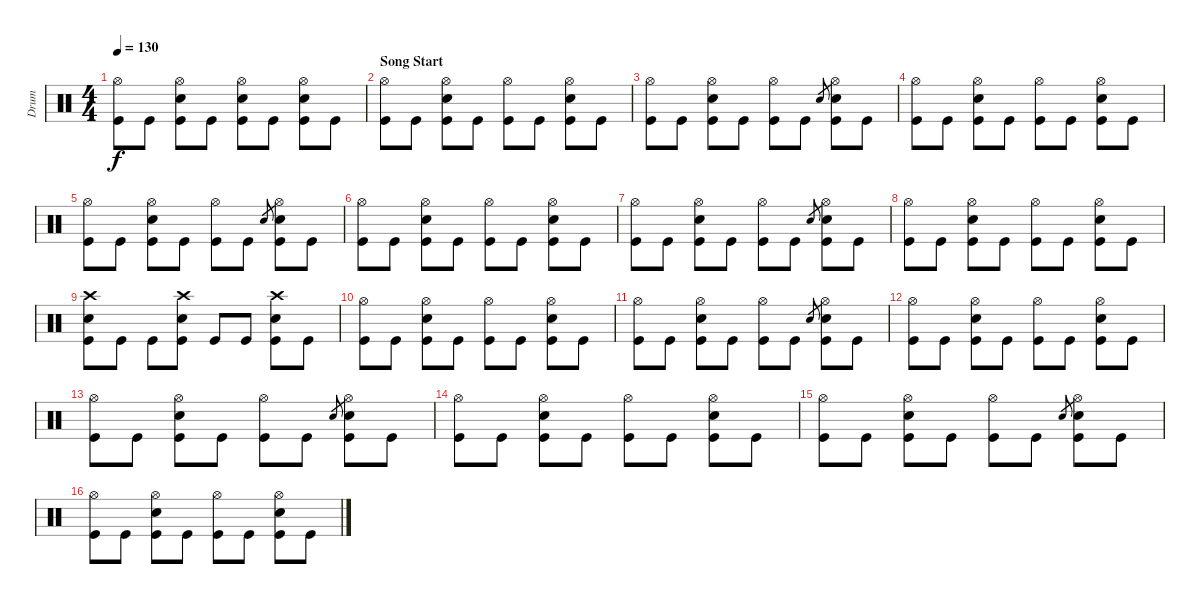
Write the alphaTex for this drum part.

\track ("Drum" "Drum") {instrument percussion}
\staff {score}
\articulation defaults
\ts (4 4)
\tempo 130
\clef neutral
\ks c
("Hi-Hat (open)" "Kick (hit)").8{dy f} "Kick (hit)".8 ("Hi-Hat (open)" "Electric Snare (hit)" "Kick (hit)").8 "Kick (hit)".8 ("Hi-Hat (open)" "Electric Snare (hit)" "Kick (hit)").8 "Kick (hit)".8 ("Electric Snare (hit)" "Hi-Hat (open)" "Kick (hit)").8 "Kick (hit)".8 |
\section ("" "Song Start")
("Hi-Hat (open)" "Kick (hit)").8 "Kick (hit)".8 ("Hi-Hat (open)" "Electric Snare (hit)" "Kick (hit)").8 "Kick (hit)".8 ("Hi-Hat (open)" "Kick (hit)").8 "Kick (hit)".8 ("Electric Snare (hit)" "Hi-Hat (open)" "Kick (hit)").8 "Kick (hit)".8 |
("Hi-Hat (open)" "Kick (hit)").8 "Kick (hit)".8 ("Hi-Hat (open)" "Electric Snare (hit)" "Kick (hit)").8 "Kick (hit)".8 ("Hi-Hat (open)" "Kick (hit)").8 "Kick (hit)".8 "Electric Snare (hit)".8{gr} ("Electric Snare (hit)" "Hi-Hat (open)" "Kick (hit)").8 "Kick (hit)".8 |
("Hi-Hat (open)" "Kick (hit)").8 "Kick (hit)".8 ("Hi-Hat (open)" "Electric Snare (hit)" "Kick (hit)").8 "Kick (hit)".8 ("Hi-Hat (open)" "Kick (hit)").8 "Kick (hit)".8 ("Electric Snare (hit)" "Hi-Hat (open)" "Kick (hit)").8 "Kick (hit)".8 |
("Hi-Hat (open)" "Kick (hit)").8 "Kick (hit)".8 ("Hi-Hat (open)" "Electric Snare (hit)" "Kick (hit)").8 "Kick (hit)".8 ("Hi-Hat (open)" "Kick (hit)").8 "Kick (hit)".8 "Electric Snare (hit)".8{gr} ("Electric Snare (hit)" "Hi-Hat (open)" "Kick (hit)").8 "Kick (hit)".8 |
("Hi-Hat (open)" "Kick (hit)").8 "Kick (hit)".8 ("Hi-Hat (open)" "Electric Snare (hit)" "Kick (hit)").8 "Kick (hit)".8 ("Hi-Hat (open)" "Kick (hit)").8 "Kick (hit)".8 ("Electric Snare (hit)" "Hi-Hat (open)" "Kick (hit)").8 "Kick (hit)".8 |
("Hi-Hat (open)" "Kick (hit)").8 "Kick (hit)".8 ("Hi-Hat (open)" "Electric Snare (hit)" "Kick (hit)").8 "Kick (hit)".8 ("Hi-Hat (open)" "Kick (hit)").8 "Kick (hit)".8 "Electric Snare (hit)".8{gr} ("Electric Snare (hit)" "Hi-Hat (open)" "Kick (hit)").8 "Kick (hit)".8 |
("Hi-Hat (open)" "Kick (hit)").8 "Kick (hit)".8 ("Hi-Hat (open)" "Electric Snare (hit)" "Kick (hit)").8 "Kick (hit)".8 ("Hi-Hat (open)" "Kick (hit)").8 "Kick (hit)".8 ("Electric Snare (hit)" "Hi-Hat (open)" "Kick (hit)").8 "Kick (hit)".8 |
("Crash high (hit)" "Electric Snare (hit)" "Kick (hit)").8 "Kick (hit)".8 "Kick (hit)".8 ("Crash high (hit)" "Electric Snare (hit)" "Kick (hit)").8 "Kick (hit)".8 "Kick (hit)".8 ("Crash high (hit)" "Electric Snare (hit)" "Kick (hit)").8 "Kick (hit)".8 |
("Hi-Hat (open)" "Kick (hit)").8 "Kick (hit)".8 ("Hi-Hat (open)" "Electric Snare (hit)" "Kick (hit)").8 "Kick (hit)".8 ("Hi-Hat (open)" "Kick (hit)").8 "Kick (hit)".8 ("Electric Snare (hit)" "Hi-Hat (open)" "Kick (hit)").8 "Kick (hit)".8 |
("Hi-Hat (open)" "Kick (hit)").8 "Kick (hit)".8 ("Hi-Hat (open)" "Electric Snare (hit)" "Kick (hit)").8 "Kick (hit)".8 ("Hi-Hat (open)" "Kick (hit)").8 "Kick (hit)".8 "Electric Snare (hit)".8{gr} ("Electric Snare (hit)" "Hi-Hat (open)" "Kick (hit)").8 "Kick (hit)".8 |
("Hi-Hat (open)" "Kick (hit)").8 "Kick (hit)".8 ("Hi-Hat (open)" "Electric Snare (hit)" "Kick (hit)").8 "Kick (hit)".8 ("Hi-Hat (open)" "Kick (hit)").8 "Kick (hit)".8 ("Electric Snare (hit)" "Hi-Hat (open)" "Kick (hit)").8 "Kick (hit)".8 |
("Hi-Hat (open)" "Kick (hit)").8 "Kick (hit)".8 ("Hi-Hat (open)" "Electric Snare (hit)" "Kick (hit)").8 "Kick (hit)".8 ("Hi-Hat (open)" "Kick (hit)").8 "Kick (hit)".8 "Electric Snare (hit)".8{gr} ("Electric Snare (hit)" "Hi-Hat (open)" "Kick (hit)").8 "Kick (hit)".8 |
("Hi-Hat (open)" "Kick (hit)").8 "Kick (hit)".8 ("Hi-Hat (open)" "Electric Snare (hit)" "Kick (hit)").8 "Kick (hit)".8 ("Hi-Hat (open)" "Kick (hit)").8 "Kick (hit)".8 ("Electric Snare (hit)" "Hi-Hat (open)" "Kick (hit)").8 "Kick (hit)".8 |
("Hi-Hat (open)" "Kick (hit)").8 "Kick (hit)".8 ("Hi-Hat (open)" "Electric Snare (hit)" "Kick (hit)").8 "Kick (hit)".8 ("Hi-Hat (open)" "Kick (hit)").8 "Kick (hit)".8 "Electric Snare (hit)".8{gr} ("Electric Snare (hit)" "Hi-Hat (open)" "Kick (hit)").8 "Kick (hit)".8 |
("Hi-Hat (open)" "Kick (hit)").8 "Kick (hit)".8 ("Hi-Hat (open)" "Electric Snare (hit)" "Kick (hit)").8 "Kick (hit)".8 ("Hi-Hat (open)" "Kick (hit)").8 "Kick (hit)".8 ("Electric Snare (hit)" "Hi-Hat (open)" "Kick (hit)").8 "Kick (hit)".8
